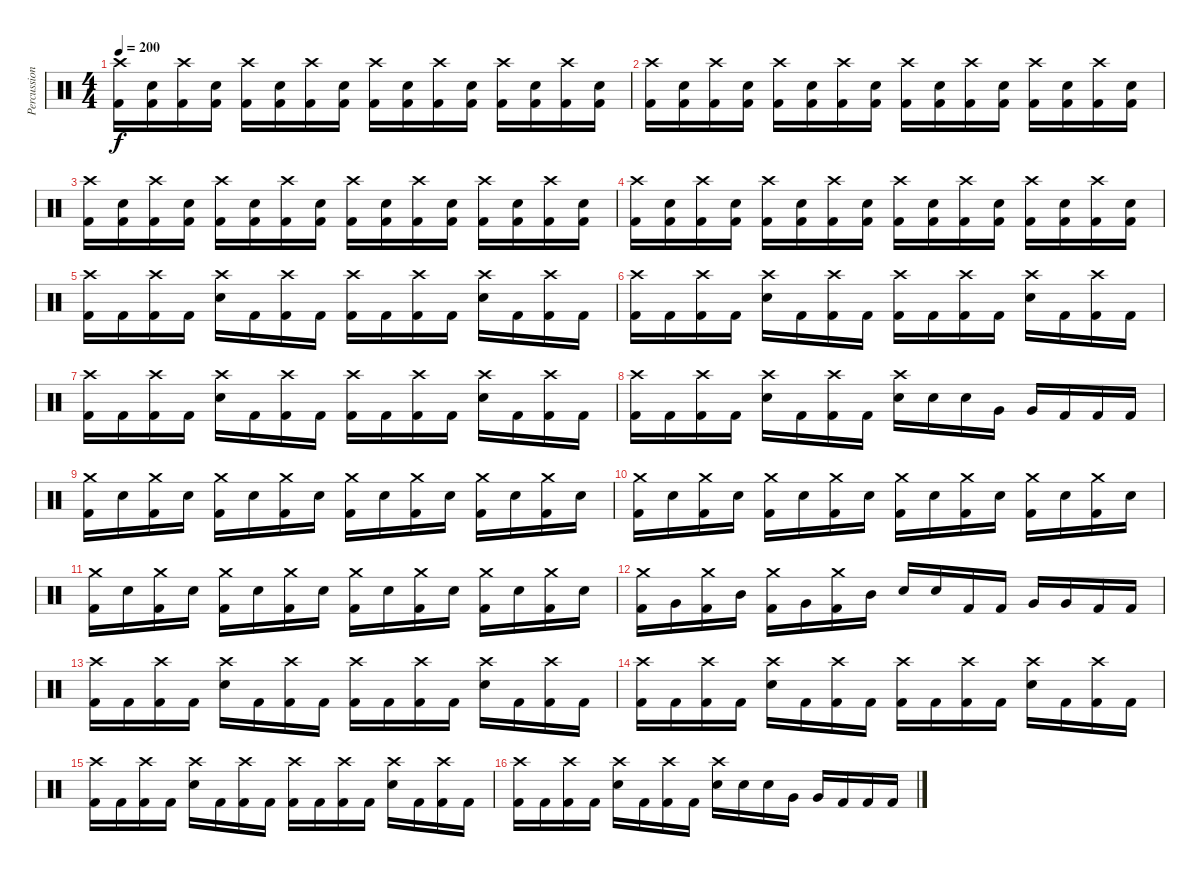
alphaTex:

\track ("Percussion" "Percussion") {instrument percussion}
\staff {score}
\articulation defaults
\ts (4 4)
\tempo 200
\clef neutral
\ks c
("Crash high (hit)" "Kick (hit) 2").16{dy f} ("Electric Snare (hit)" "Kick (hit) 2").16 ("Crash high (hit)" "Kick (hit) 2").16 ("Electric Snare (hit)" "Kick (hit) 2").16 ("Crash high (hit)" "Kick (hit) 2").16 ("Electric Snare (hit)" "Kick (hit) 2").16 ("Crash high (hit)" "Kick (hit) 2").16 ("Electric Snare (hit)" "Kick (hit) 2").16 ("Crash high (hit)" "Kick (hit) 2").16 ("Electric Snare (hit)" "Kick (hit) 2").16 ("Crash high (hit)" "Kick (hit) 2").16 ("Electric Snare (hit)" "Kick (hit) 2").16 ("Crash high (hit)" "Kick (hit) 2").16 ("Electric Snare (hit)" "Kick (hit) 2").16 ("Crash high (hit)" "Kick (hit) 2").16 ("Electric Snare (hit)" "Kick (hit) 2").16 |
("Crash high (hit)" "Kick (hit) 2").16 ("Electric Snare (hit)" "Kick (hit) 2").16 ("Crash high (hit)" "Kick (hit) 2").16 ("Electric Snare (hit)" "Kick (hit) 2").16 ("Crash high (hit)" "Kick (hit) 2").16 ("Electric Snare (hit)" "Kick (hit) 2").16 ("Crash high (hit)" "Kick (hit) 2").16 ("Electric Snare (hit)" "Kick (hit) 2").16 ("Crash high (hit)" "Kick (hit) 2").16 ("Electric Snare (hit)" "Kick (hit) 2").16 ("Crash high (hit)" "Kick (hit) 2").16 ("Electric Snare (hit)" "Kick (hit) 2").16 ("Crash high (hit)" "Kick (hit) 2").16 ("Electric Snare (hit)" "Kick (hit) 2").16 ("Crash high (hit)" "Kick (hit) 2").16 ("Electric Snare (hit)" "Kick (hit) 2").16 |
("Crash high (hit)" "Kick (hit) 2").16 ("Electric Snare (hit)" "Kick (hit) 2").16 ("Crash high (hit)" "Kick (hit) 2").16 ("Electric Snare (hit)" "Kick (hit) 2").16 ("Crash high (hit)" "Kick (hit) 2").16 ("Electric Snare (hit)" "Kick (hit) 2").16 ("Crash high (hit)" "Kick (hit) 2").16 ("Electric Snare (hit)" "Kick (hit) 2").16 ("Crash high (hit)" "Kick (hit) 2").16 ("Electric Snare (hit)" "Kick (hit) 2").16 ("Crash high (hit)" "Kick (hit) 2").16 ("Electric Snare (hit)" "Kick (hit) 2").16 ("Crash high (hit)" "Kick (hit) 2").16 ("Electric Snare (hit)" "Kick (hit) 2").16 ("Crash high (hit)" "Kick (hit) 2").16 ("Electric Snare (hit)" "Kick (hit) 2").16 |
("Crash high (hit)" "Kick (hit) 2").16 ("Electric Snare (hit)" "Kick (hit) 2").16 ("Crash high (hit)" "Kick (hit) 2").16 ("Electric Snare (hit)" "Kick (hit) 2").16 ("Crash high (hit)" "Kick (hit) 2").16 ("Electric Snare (hit)" "Kick (hit) 2").16 ("Crash high (hit)" "Kick (hit) 2").16 ("Electric Snare (hit)" "Kick (hit) 2").16 ("Crash high (hit)" "Kick (hit) 2").16 ("Electric Snare (hit)" "Kick (hit) 2").16 ("Crash high (hit)" "Kick (hit) 2").16 ("Electric Snare (hit)" "Kick (hit) 2").16 ("Crash high (hit)" "Kick (hit) 2").16 ("Electric Snare (hit)" "Kick (hit) 2").16 ("Crash high (hit)" "Kick (hit) 2").16 ("Electric Snare (hit)" "Kick (hit) 2").16 |
("Crash high (hit)" "Kick (hit) 2").16 "Kick (hit) 2".16 ("Crash high (hit)" "Kick (hit) 2").16 "Kick (hit) 2".16 ("Crash high (hit)" "Electric Snare (hit)").16 "Kick (hit) 2".16 ("Crash high (hit)" "Kick (hit) 2").16 "Kick (hit) 2".16 ("Crash high (hit)" "Kick (hit) 2").16 "Kick (hit) 2".16 ("Crash high (hit)" "Kick (hit) 2").16 "Kick (hit) 2".16 ("Crash high (hit)" "Electric Snare (hit)").16 "Kick (hit) 2".16 ("Crash high (hit)" "Kick (hit) 2").16 "Kick (hit) 2".16 |
("Crash high (hit)" "Kick (hit) 2").16 "Kick (hit) 2".16 ("Crash high (hit)" "Kick (hit) 2").16 "Kick (hit) 2".16 ("Crash high (hit)" "Electric Snare (hit)").16 "Kick (hit) 2".16 ("Crash high (hit)" "Kick (hit) 2").16 "Kick (hit) 2".16 ("Crash high (hit)" "Kick (hit) 2").16 "Kick (hit) 2".16 ("Crash high (hit)" "Kick (hit) 2").16 "Kick (hit) 2".16 ("Crash high (hit)" "Electric Snare (hit)").16 "Kick (hit) 2".16 ("Crash high (hit)" "Kick (hit) 2").16 "Kick (hit) 2".16 |
("Crash high (hit)" "Kick (hit) 2").16 "Kick (hit) 2".16 ("Crash high (hit)" "Kick (hit) 2").16 "Kick (hit) 2".16 ("Crash high (hit)" "Electric Snare (hit)").16 "Kick (hit) 2".16 ("Crash high (hit)" "Kick (hit) 2").16 "Kick (hit) 2".16 ("Crash high (hit)" "Kick (hit) 2").16 "Kick (hit) 2".16 ("Crash high (hit)" "Kick (hit) 2").16 "Kick (hit) 2".16 ("Crash high (hit)" "Electric Snare (hit)").16 "Kick (hit) 2".16 ("Crash high (hit)" "Kick (hit) 2").16 "Kick (hit) 2".16 |
("Crash high (hit)" "Kick (hit) 2").16 "Kick (hit) 2".16 ("Crash high (hit)" "Kick (hit) 2").16 "Kick (hit) 2".16 ("Crash high (hit)" "Electric Snare (hit)").16 "Kick (hit) 2".16 ("Crash high (hit)" "Kick (hit) 2").16 "Kick (hit) 2".16 ("Crash high (hit)" "Electric Snare (hit)").16 "Electric Snare (hit)".16 "Electric Snare (hit)".16 "Very Low Tom (hit)".16 "Very Low Tom (hit)".16 "Kick (hit) 2".16 "Kick (hit) 2".16 "Kick (hit) 2".16 |
("Crash medium (hit)" "Kick (hit) 2").16 "Snare (hit) 2".16 ("Crash medium (hit)" "Kick (hit) 2").16 "Snare (hit) 2".16 ("Crash medium (hit)" "Kick (hit) 2").16 "Snare (hit) 2".16 ("Crash medium (hit)" "Kick (hit) 2").16 "Snare (hit) 2".16 ("Crash medium (hit)" "Kick (hit) 2").16 "Snare (hit) 2".16 ("Crash medium (hit)" "Kick (hit) 2").16 "Snare (hit) 2".16 ("Crash medium (hit)" "Kick (hit) 2").16 "Snare (hit) 2".16 ("Crash medium (hit)" "Kick (hit) 2").16 "Snare (hit) 2".16 |
("Crash medium (hit)" "Kick (hit) 2").16 "Snare (hit) 2".16 ("Crash medium (hit)" "Kick (hit) 2").16 "Snare (hit) 2".16 ("Crash medium (hit)" "Kick (hit) 2").16 "Snare (hit) 2".16 ("Crash medium (hit)" "Kick (hit) 2").16 "Snare (hit) 2".16 ("Crash medium (hit)" "Kick (hit) 2").16 "Snare (hit) 2".16 ("Crash medium (hit)" "Kick (hit) 2").16 "Snare (hit) 2".16 ("Crash medium (hit)" "Kick (hit) 2").16 "Snare (hit) 2".16 ("Crash medium (hit)" "Kick (hit) 2").16 "Snare (hit) 2".16 |
("Crash medium (hit)" "Kick (hit) 2").16 "Snare (hit) 2".16 ("Crash medium (hit)" "Kick (hit) 2").16 "Snare (hit) 2".16 ("Crash medium (hit)" "Kick (hit) 2").16 "Snare (hit) 2".16 ("Crash medium (hit)" "Kick (hit) 2").16 "Snare (hit) 2".16 ("Crash medium (hit)" "Kick (hit) 2").16 "Snare (hit) 2".16 ("Crash medium (hit)" "Kick (hit) 2").16 "Snare (hit) 2".16 ("Crash medium (hit)" "Kick (hit) 2").16 "Snare (hit) 2".16 ("Crash medium (hit)" "Kick (hit) 2").16 "Snare (hit) 2".16 |
("Crash medium (hit)" "Kick (hit) 2").16 "Very Low Tom (hit)".16 ("Crash medium (hit)" "Kick (hit) 2").16 "Mid Tom (hit)".16 ("Crash medium (hit)" "Kick (hit) 2").16 "Very Low Tom (hit)".16 ("Crash medium (hit)" "Kick (hit) 2").16 "Mid Tom (hit)".16 "Electric Snare (hit)".16 "Electric Snare (hit)".16 "Kick (hit) 2".16 "Kick (hit) 2".16 "Very Low Tom (hit)".16 "Very Low Tom (hit)".16 "Kick (hit) 2".16 "Kick (hit) 2".16 |
("Crash high (hit)" "Kick (hit) 2").16 "Kick (hit) 2".16 ("Crash high (hit)" "Kick (hit) 2").16 "Kick (hit) 2".16 ("Crash high (hit)" "Electric Snare (hit)").16 "Kick (hit) 2".16 ("Crash high (hit)" "Kick (hit) 2").16 "Kick (hit) 2".16 ("Crash high (hit)" "Kick (hit) 2").16 "Kick (hit) 2".16 ("Crash high (hit)" "Kick (hit) 2").16 "Kick (hit) 2".16 ("Crash high (hit)" "Electric Snare (hit)").16 "Kick (hit) 2".16 ("Crash high (hit)" "Kick (hit) 2").16 "Kick (hit) 2".16 |
("Crash high (hit)" "Kick (hit) 2").16 "Kick (hit) 2".16 ("Crash high (hit)" "Kick (hit) 2").16 "Kick (hit) 2".16 ("Crash high (hit)" "Electric Snare (hit)").16 "Kick (hit) 2".16 ("Crash high (hit)" "Kick (hit) 2").16 "Kick (hit) 2".16 ("Crash high (hit)" "Kick (hit) 2").16 "Kick (hit) 2".16 ("Crash high (hit)" "Kick (hit) 2").16 "Kick (hit) 2".16 ("Crash high (hit)" "Electric Snare (hit)").16 "Kick (hit) 2".16 ("Crash high (hit)" "Kick (hit) 2").16 "Kick (hit) 2".16 |
("Crash high (hit)" "Kick (hit) 2").16 "Kick (hit) 2".16 ("Crash high (hit)" "Kick (hit) 2").16 "Kick (hit) 2".16 ("Crash high (hit)" "Electric Snare (hit)").16 "Kick (hit) 2".16 ("Crash high (hit)" "Kick (hit) 2").16 "Kick (hit) 2".16 ("Crash high (hit)" "Kick (hit) 2").16 "Kick (hit) 2".16 ("Crash high (hit)" "Kick (hit) 2").16 "Kick (hit) 2".16 ("Crash high (hit)" "Electric Snare (hit)").16 "Kick (hit) 2".16 ("Crash high (hit)" "Kick (hit) 2").16 "Kick (hit) 2".16 |
("Crash high (hit)" "Kick (hit) 2").16 "Kick (hit) 2".16 ("Crash high (hit)" "Kick (hit) 2").16 "Kick (hit) 2".16 ("Crash high (hit)" "Electric Snare (hit)").16 "Kick (hit) 2".16 ("Crash high (hit)" "Kick (hit) 2").16 "Kick (hit) 2".16 ("Crash high (hit)" "Electric Snare (hit)").16 "Electric Snare (hit)".16 "Electric Snare (hit)".16 "Very Low Tom (hit)".16 "Very Low Tom (hit)".16 "Kick (hit) 2".16 "Kick (hit) 2".16 "Kick (hit) 2".16
